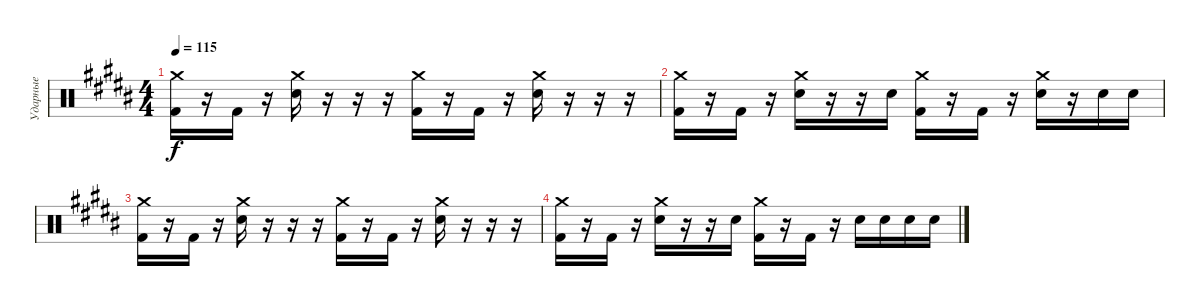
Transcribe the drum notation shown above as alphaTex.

\track ("Ударные" "Ударные") {instrument percussion}
\staff {score}
\articulation defaults
\ts (4 4)
\tempo 115
\clef neutral
\ks b
("Crash medium (hit)" "Kick (hit) 2").16{dy f} r.16 "Kick (hit) 2".16 r.16 ("Crash medium (hit)" "Snare (hit) 2").16 r.16 r.16 r.16 ("Crash medium (hit)" "Kick (hit) 2").16 r.16 "Kick (hit) 2".16 r.16 ("Crash medium (hit)" "Snare (hit) 2").16 r.16 r.16 r.16 |
("Crash medium (hit)" "Kick (hit) 2").16 r.16 "Kick (hit) 2".16 r.16 ("Crash medium (hit)" "Snare (hit) 2").16 r.16 r.16 "Snare (hit) 2".16 ("Crash medium (hit)" "Kick (hit) 2").16 r.16 "Kick (hit) 2".16 r.16 ("Crash medium (hit)" "Snare (hit) 2").16 r.16 "Snare (hit) 2".16 "Snare (hit) 2".16 |
("Crash medium (hit)" "Kick (hit) 2").16 r.16 "Kick (hit) 2".16 r.16 ("Crash medium (hit)" "Snare (hit) 2").16 r.16 r.16 r.16 ("Crash medium (hit)" "Kick (hit) 2").16 r.16 "Kick (hit) 2".16 r.16 ("Crash medium (hit)" "Snare (hit) 2").16 r.16 r.16 r.16 |
("Crash medium (hit)" "Kick (hit) 2").16 r.16 "Kick (hit) 2".16 r.16 ("Crash medium (hit)" "Snare (hit) 2").16 r.16 r.16 "Snare (hit) 2".16 ("Crash medium (hit)" "Kick (hit) 2").16 r.16 "Kick (hit) 2".16 r.16 "Snare (hit) 2".16 "Snare (hit) 2".16 "Snare (hit) 2".16 "Snare (hit) 2".16
